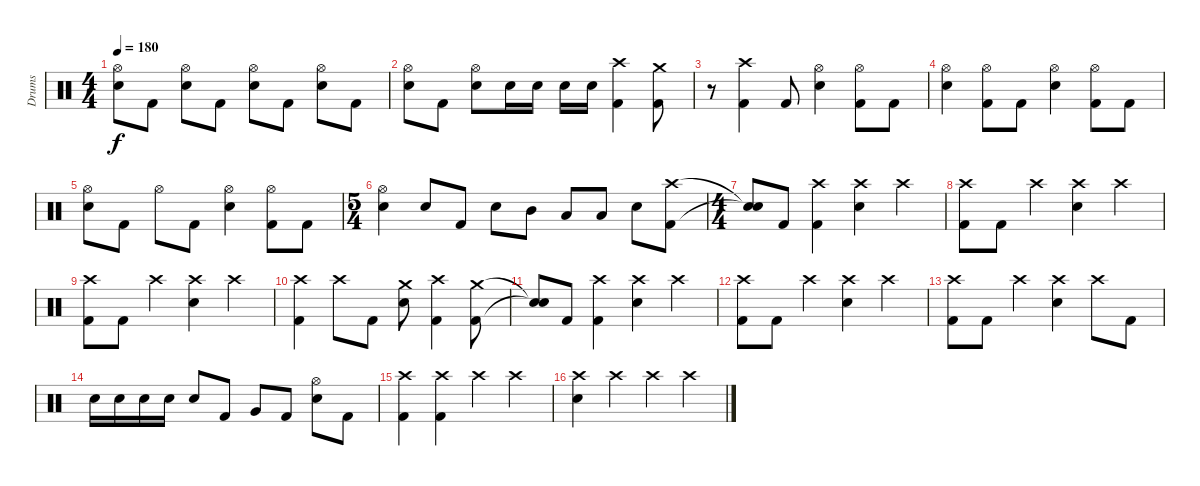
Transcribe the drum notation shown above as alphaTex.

\track ("Drums" "Drums") {instrument percussion}
\staff {score}
\articulation defaults
\ts (4 4)
\tempo 180
\clef neutral
\ks c
("Hi-Hat (open)" "Electric Snare (hit)").8{dy f} "Kick (hit) 2".8 ("Hi-Hat (open)" "Electric Snare (hit)").8 "Kick (hit) 2".8 ("Hi-Hat (open)" "Electric Snare (hit)").8 "Kick (hit) 2".8 ("Hi-Hat (open)" "Electric Snare (hit)").8 "Kick (hit) 2".8 |
("Hi-Hat (open)" "Electric Snare (hit)").8 "Kick (hit) 2".8 ("Hi-Hat (open)" "Electric Snare (hit)").8 "Electric Snare (hit)".16 "Electric Snare (hit)".16 "Electric Snare (hit)".16 "Electric Snare (hit)".16 ("Crash high (hit)" "Kick (hit) 2").4 ("Crash medium (hit)" "Kick (hit) 2").8 |
r.8 ("Crash high (hit)" "Kick (hit) 2").4 "Kick (hit) 2".8 ("Hi-Hat (open)" "Electric Snare (hit)").4 ("Hi-Hat (open)" "Kick (hit) 2").8 "Kick (hit) 2".8 |
("Hi-Hat (open)" "Electric Snare (hit)").4 ("Hi-Hat (open)" "Kick (hit) 2").8 "Kick (hit) 2".8 ("Hi-Hat (open)" "Electric Snare (hit)").4 ("Hi-Hat (open)" "Kick (hit) 2").8 "Kick (hit) 2".8 |
("Hi-Hat (open)" "Electric Snare (hit)").8 "Kick (hit) 2".8 "Hi-Hat (open)".8 "Kick (hit) 2".8 ("Hi-Hat (open)" "Electric Snare (hit)").4 ("Hi-Hat (open)" "Kick (hit) 2").8 "Kick (hit) 2".8 |
\ts (5 4)
("Hi-Hat (open)" "Electric Snare (hit)").4 "Electric Snare (hit)".8 "Kick (hit) 2".8 "Electric Snare (hit)".8 "Mid Tom (hit)".8 "Low Tom (hit)".8 "Low Tom (hit)".8 "Electric Snare (hit)".8 ("Crash high (hit)" "Kick (hit) 2").8 |
\ts (4 4)
("Snare (hit)"{t} "Snare (hit)"{t}).8 "Kick (hit) 2".8 ("Crash high (hit)" "Kick (hit) 2").4 ("Crash high (hit)" "Electric Snare (hit)").4 "Crash high (hit)".4 |
("Crash high (hit)" "Kick (hit) 2").8 "Kick (hit) 2".8 "Crash high (hit)".4 ("Crash high (hit)" "Electric Snare (hit)").4 "Crash high (hit)".4 |
("Crash high (hit)" "Kick (hit) 2").8 "Kick (hit) 2".8 "Crash high (hit)".4 ("Crash high (hit)" "Electric Snare (hit)").4 "Crash high (hit)".4 |
("Crash high (hit)" "Kick (hit) 2").4 "Crash high (hit)".8 "Kick (hit) 2".8 ("Crash medium (hit)" "Electric Snare (hit)").8 ("Crash high (hit)" "Kick (hit) 2").4 ("Crash medium (hit)" "Kick (hit) 2").8 |
("Snare (hit)"{t} "Snare (hit)"{t}).8 "Kick (hit) 2".8 ("Crash high (hit)" "Kick (hit) 2").4 ("Crash high (hit)" "Electric Snare (hit)").4 "Crash high (hit)".4 |
("Crash high (hit)" "Kick (hit) 2").8 "Kick (hit) 2".8 "Crash high (hit)".4 ("Crash high (hit)" "Electric Snare (hit)").4 "Crash high (hit)".4 |
("Crash high (hit)" "Kick (hit) 2").8 "Kick (hit) 2".8 "Crash high (hit)".4 ("Crash high (hit)" "Electric Snare (hit)").4 "Crash high (hit)".8 "Kick (hit) 2".8 |
"Electric Snare (hit)".16 "Electric Snare (hit)".16 "Electric Snare (hit)".16 "Electric Snare (hit)".16 "Electric Snare (hit)".8 "Kick (hit) 2".8 "Very Low Tom (hit)".8 "Kick (hit) 2".8 ("Hi-Hat (open)" "Electric Snare (hit)").8 "Kick (hit) 2".8 |
("Crash high (hit)" "Kick (hit) 2").4 ("Crash high (hit)" "Kick (hit) 2").4 "Crash high (hit)".4 "Crash high (hit)".4 |
("Crash high (hit)" "Electric Snare (hit)").4 "Crash high (hit)".4 "Crash high (hit)".4 "Crash high (hit)".4
